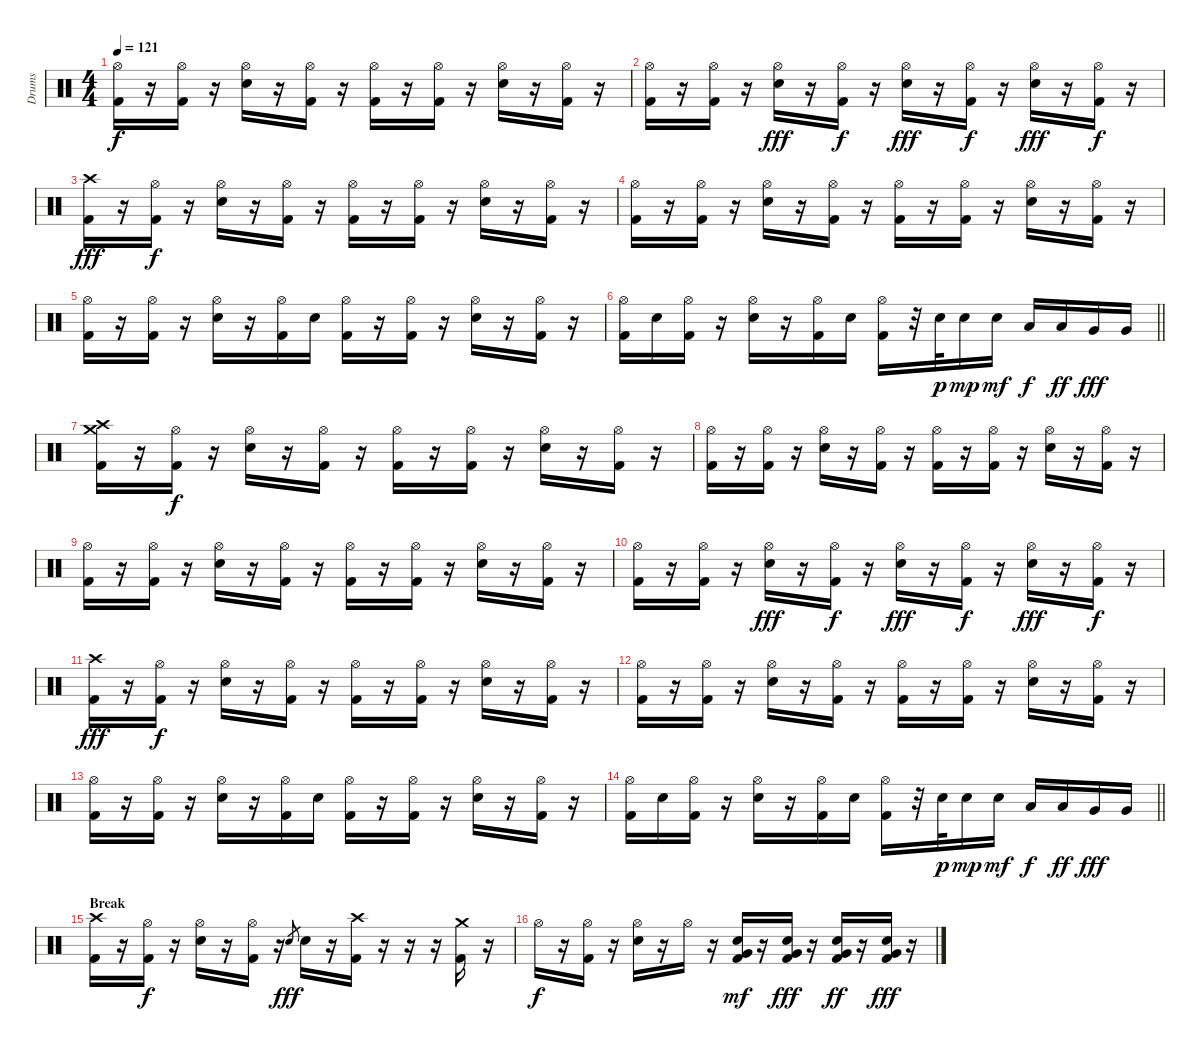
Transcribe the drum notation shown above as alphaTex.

\track ("Drums" "Drums") {instrument percussion}
\staff {score}
\articulation defaults
\ts (4 4)
\tempo 121
\clef neutral
\ks c
("Hi-Hat (open)" "Kick (hit) 2").16{dy f} r.16 ("Hi-Hat (open)" "Kick (hit) 2").16 r.16 ("Hi-Hat (open)" "Electric Snare (hit)").16 r.16 ("Hi-Hat (open)" "Kick (hit) 2").16 r.16 ("Hi-Hat (open)" "Kick (hit) 2").16 r.16 ("Hi-Hat (open)" "Kick (hit) 2").16 r.16 ("Hi-Hat (open)" "Electric Snare (hit)").16 r.16 ("Hi-Hat (open)" "Kick (hit) 2").16 r.16 |
("Hi-Hat (open)" "Kick (hit) 2").16 r.16 ("Hi-Hat (open)" "Kick (hit) 2").16 r.16 ("Hi-Hat (open)" "Electric Snare (hit)").16{dy fff} r.16 ("Hi-Hat (open)" "Kick (hit) 2").16{dy f} r.16 ("Hi-Hat (open)" "Electric Snare (hit)").16{dy fff} r.16 ("Hi-Hat (open)" "Kick (hit) 2").16{dy f} r.16 ("Hi-Hat (open)" "Electric Snare (hit)").16{dy fff} r.16 ("Hi-Hat (open)" "Kick (hit) 2").16{dy f} r.16 |
("Crash high (hit)" "Kick (hit) 2").16{dy fff} r.16 ("Hi-Hat (open)" "Kick (hit) 2").16{dy f} r.16 ("Hi-Hat (open)" "Electric Snare (hit)").16 r.16 ("Hi-Hat (open)" "Kick (hit) 2").16 r.16 ("Hi-Hat (open)" "Kick (hit) 2").16 r.16 ("Hi-Hat (open)" "Kick (hit) 2").16 r.16 ("Hi-Hat (open)" "Electric Snare (hit)").16 r.16 ("Hi-Hat (open)" "Kick (hit) 2").16 r.16 |
("Hi-Hat (open)" "Kick (hit) 2").16 r.16 ("Hi-Hat (open)" "Kick (hit) 2").16 r.16 ("Hi-Hat (open)" "Electric Snare (hit)").16 r.16 ("Hi-Hat (open)" "Kick (hit) 2").16 r.16 ("Hi-Hat (open)" "Kick (hit) 2").16 r.16 ("Hi-Hat (open)" "Kick (hit) 2").16 r.16 ("Hi-Hat (open)" "Electric Snare (hit)").16 r.16 ("Hi-Hat (open)" "Kick (hit) 2").16 r.16 |
("Hi-Hat (open)" "Kick (hit) 2").16 r.16 ("Hi-Hat (open)" "Kick (hit) 2").16 r.16 ("Hi-Hat (open)" "Electric Snare (hit)").16 r.16 ("Hi-Hat (open)" "Kick (hit) 2").16 "Electric Snare (hit)".16 ("Hi-Hat (open)" "Kick (hit) 2").16 r.16 ("Hi-Hat (open)" "Kick (hit) 2").16 r.16 ("Hi-Hat (open)" "Electric Snare (hit)").16 r.16 ("Hi-Hat (open)" "Kick (hit) 2").16 r.16 |
\barLineRight lightlight
("Hi-Hat (open)" "Kick (hit) 2").16 "Electric Snare (hit)".16 ("Hi-Hat (open)" "Kick (hit) 2").16 r.16 ("Hi-Hat (open)" "Electric Snare (hit)").16 r.16 ("Hi-Hat (open)" "Kick (hit) 2").16 "Electric Snare (hit)".16 ("Hi-Hat (open)" "Kick (hit) 2").16 r.32 "Electric Snare (hit)".32{dy p} "Electric Snare (hit)".16{dy mp} "Electric Snare (hit)".16{dy mf} "Low Tom (hit)".16{dy f} "Low Tom (hit)".16{dy ff} "Very Low Tom (hit)".16{dy fff} "Very Low Tom (hit)".16 |
("Crash high (hit)" "Crash medium (hit)" "Kick (hit) 2").16 r.16 ("Hi-Hat (open)" "Kick (hit) 2").16{dy f} r.16 ("Hi-Hat (open)" "Electric Snare (hit)").16 r.16 ("Hi-Hat (open)" "Kick (hit) 2").16 r.16 ("Hi-Hat (open)" "Kick (hit) 2").16 r.16 ("Hi-Hat (open)" "Kick (hit) 2").16 r.16 ("Hi-Hat (open)" "Electric Snare (hit)").16 r.16 ("Hi-Hat (open)" "Kick (hit) 2").16 r.16 |
("Hi-Hat (open)" "Kick (hit) 2").16 r.16 ("Hi-Hat (open)" "Kick (hit) 2").16 r.16 ("Hi-Hat (open)" "Electric Snare (hit)").16 r.16 ("Hi-Hat (open)" "Kick (hit) 2").16 r.16 ("Hi-Hat (open)" "Kick (hit) 2").16 r.16 ("Hi-Hat (open)" "Kick (hit) 2").16 r.16 ("Hi-Hat (open)" "Electric Snare (hit)").16 r.16 ("Hi-Hat (open)" "Kick (hit) 2").16 r.16 |
("Hi-Hat (open)" "Kick (hit) 2").16 r.16 ("Hi-Hat (open)" "Kick (hit) 2").16 r.16 ("Hi-Hat (open)" "Electric Snare (hit)").16 r.16 ("Hi-Hat (open)" "Kick (hit) 2").16 r.16 ("Hi-Hat (open)" "Kick (hit) 2").16 r.16 ("Hi-Hat (open)" "Kick (hit) 2").16 r.16 ("Hi-Hat (open)" "Electric Snare (hit)").16 r.16 ("Hi-Hat (open)" "Kick (hit) 2").16 r.16 |
("Hi-Hat (open)" "Kick (hit) 2").16 r.16 ("Hi-Hat (open)" "Kick (hit) 2").16 r.16 ("Hi-Hat (open)" "Electric Snare (hit)").16{dy fff} r.16 ("Hi-Hat (open)" "Kick (hit) 2").16{dy f} r.16 ("Hi-Hat (open)" "Electric Snare (hit)").16{dy fff} r.16 ("Hi-Hat (open)" "Kick (hit) 2").16{dy f} r.16 ("Hi-Hat (open)" "Electric Snare (hit)").16{dy fff} r.16 ("Hi-Hat (open)" "Kick (hit) 2").16{dy f} r.16 |
("Crash high (hit)" "Kick (hit) 2").16{dy fff} r.16 ("Hi-Hat (open)" "Kick (hit) 2").16{dy f} r.16 ("Hi-Hat (open)" "Electric Snare (hit)").16 r.16 ("Hi-Hat (open)" "Kick (hit) 2").16 r.16 ("Hi-Hat (open)" "Kick (hit) 2").16 r.16 ("Hi-Hat (open)" "Kick (hit) 2").16 r.16 ("Hi-Hat (open)" "Electric Snare (hit)").16 r.16 ("Hi-Hat (open)" "Kick (hit) 2").16 r.16 |
("Hi-Hat (open)" "Kick (hit) 2").16 r.16 ("Hi-Hat (open)" "Kick (hit) 2").16 r.16 ("Hi-Hat (open)" "Electric Snare (hit)").16 r.16 ("Hi-Hat (open)" "Kick (hit) 2").16 r.16 ("Hi-Hat (open)" "Kick (hit) 2").16 r.16 ("Hi-Hat (open)" "Kick (hit) 2").16 r.16 ("Hi-Hat (open)" "Electric Snare (hit)").16 r.16 ("Hi-Hat (open)" "Kick (hit) 2").16 r.16 |
("Hi-Hat (open)" "Kick (hit) 2").16 r.16 ("Hi-Hat (open)" "Kick (hit) 2").16 r.16 ("Hi-Hat (open)" "Electric Snare (hit)").16 r.16 ("Hi-Hat (open)" "Kick (hit) 2").16 "Electric Snare (hit)".16 ("Hi-Hat (open)" "Kick (hit) 2").16 r.16 ("Hi-Hat (open)" "Kick (hit) 2").16 r.16 ("Hi-Hat (open)" "Electric Snare (hit)").16 r.16 ("Hi-Hat (open)" "Kick (hit) 2").16 r.16 |
\barLineRight lightlight
("Hi-Hat (open)" "Kick (hit) 2").16 "Electric Snare (hit)".16 ("Hi-Hat (open)" "Kick (hit) 2").16 r.16 ("Hi-Hat (open)" "Electric Snare (hit)").16 r.16 ("Hi-Hat (open)" "Kick (hit) 2").16 "Electric Snare (hit)".16 ("Hi-Hat (open)" "Kick (hit) 2").16 r.32 "Electric Snare (hit)".32{dy p} "Electric Snare (hit)".16{dy mp} "Electric Snare (hit)".16{dy mf} "Low Tom (hit)".16{dy f} "Low Tom (hit)".16{dy ff} "Very Low Tom (hit)".16{dy fff} "Very Low Tom (hit)".16 |
\section ("" "Break")
("Crash high (hit)" "Kick (hit) 2").16 r.16 ("Hi-Hat (open)" "Kick (hit) 2").16{dy f} r.16 ("Hi-Hat (open)" "Electric Snare (hit)").16 r.16 ("Hi-Hat (open)" "Kick (hit) 2").16 r.16 "Electric Snare (hit)".8{gr dy fff} "Electric Snare (hit)".16 r.16 ("Crash high (hit)" "Kick (hit) 2").16 r.16 r.16 r.16 ("Crash medium (hit)" "Kick (hit) 2").16 r.16 |
"Hi-Hat (open)".16{dy f} r.16 ("Hi-Hat (open)" "Kick (hit) 2").16 r.16 ("Hi-Hat (open)" "Electric Snare (hit)").16 r.16 "Hi-Hat (open)".16 r.16 ("Electric Snare (hit)" "Very Low Tom (hit)" "Kick (hit) 2").16{dy mf} r.16 ("Electric Snare (hit)" "Very Low Tom (hit)" "Kick (hit) 2").16{dy fff} r.16 ("Electric Snare (hit)" "Very Low Tom (hit)" "Kick (hit) 2").16{dy ff} r.16 ("Electric Snare (hit)" "Very Low Tom (hit)" "Kick (hit) 2").16{dy fff} r.16
